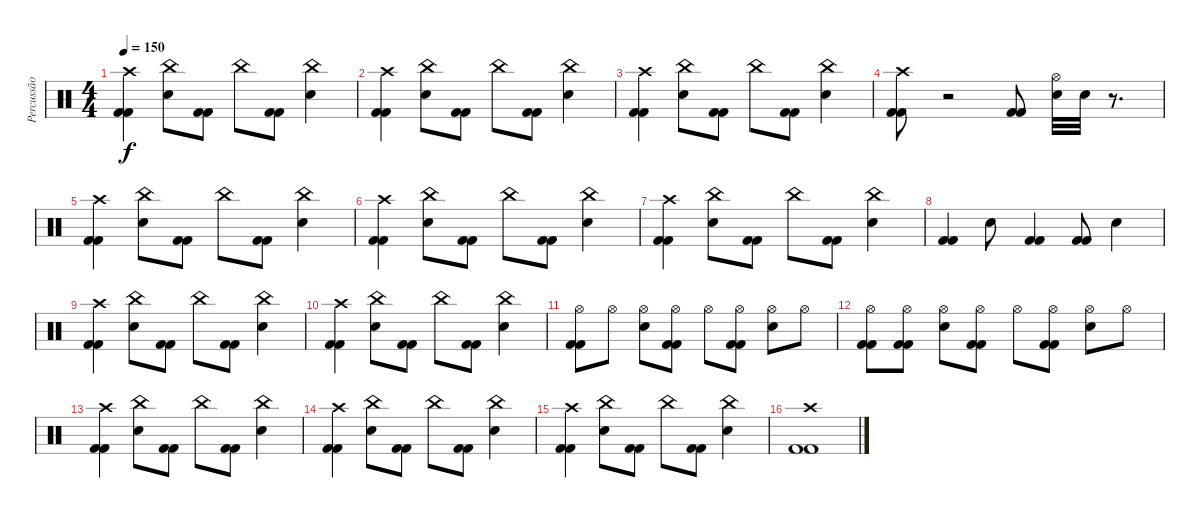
\track ("Percussão" "Percussão") {instrument percussion}
\staff {score}
\articulation defaults
\ts (4 4)
\tempo 150
\clef neutral
\ks c
("Crash high (hit)" "Kick (hit) 2" "Kick (hit) 2").4{dy f} ("China (hit)" "Electric Snare (hit)").8 ("Kick (hit) 2" "Kick (hit) 2").8 "China (hit)".8 ("Kick (hit) 2" "Kick (hit) 2").8 ("China (hit)" "Electric Snare (hit)").4 |
("Crash high (hit)" "Kick (hit) 2" "Kick (hit) 2").4 ("China (hit)" "Electric Snare (hit)").8 ("Kick (hit) 2" "Kick (hit) 2").8 "China (hit)".8 ("Kick (hit) 2" "Kick (hit) 2").8 ("China (hit)" "Electric Snare (hit)").4 |
("Crash high (hit)" "Kick (hit) 2" "Kick (hit) 2").4 ("China (hit)" "Electric Snare (hit)").8 ("Kick (hit) 2" "Kick (hit) 2").8 "China (hit)".8 ("Kick (hit) 2" "Kick (hit) 2").8 ("China (hit)" "Electric Snare (hit)").4 |
("Crash high (hit)" "Kick (hit) 2" "Kick (hit) 2").8 r.2 ("Kick (hit) 2" "Kick (hit) 2").8 ("Hi-Hat (open)" "Electric Snare (hit)").32 "Electric Snare (hit)".32 r.8{d} |
("Crash high (hit)" "Kick (hit) 2" "Kick (hit) 2").4 ("China (hit)" "Electric Snare (hit)").8 ("Kick (hit) 2" "Kick (hit) 2").8 "China (hit)".8 ("Kick (hit) 2" "Kick (hit) 2").8 ("China (hit)" "Electric Snare (hit)").4 |
("Crash high (hit)" "Kick (hit) 2" "Kick (hit) 2").4 ("China (hit)" "Electric Snare (hit)").8 ("Kick (hit) 2" "Kick (hit) 2").8 "China (hit)".8 ("Kick (hit) 2" "Kick (hit) 2").8 ("China (hit)" "Electric Snare (hit)").4 |
("Crash high (hit)" "Kick (hit) 2" "Kick (hit) 2").4 ("China (hit)" "Electric Snare (hit)").8 ("Kick (hit) 2" "Kick (hit) 2").8 "China (hit)".8 ("Kick (hit) 2" "Kick (hit) 2").8 ("China (hit)" "Electric Snare (hit)").4 |
("Kick (hit) 2" "Kick (hit) 2").4 "Electric Snare (hit)".8 ("Kick (hit) 2" "Kick (hit) 2").4 ("Kick (hit) 2" "Kick (hit) 2").8 "Electric Snare (hit)".4 |
("Crash high (hit)" "Kick (hit) 2" "Kick (hit) 2").4 ("China (hit)" "Electric Snare (hit)").8 ("Kick (hit) 2" "Kick (hit) 2").8 "China (hit)".8 ("Kick (hit) 2" "Kick (hit) 2").8 ("China (hit)" "Electric Snare (hit)").4 |
("Crash high (hit)" "Kick (hit) 2" "Kick (hit) 2").4 ("China (hit)" "Electric Snare (hit)").8 ("Kick (hit) 2" "Kick (hit) 2").8 "China (hit)".8 ("Kick (hit) 2" "Kick (hit) 2").8 ("China (hit)" "Electric Snare (hit)").4 |
("Hi-Hat (open)" "Kick (hit) 2" "Kick (hit) 2").8 "Hi-Hat (open)".8 ("Hi-Hat (open)" "Electric Snare (hit)").8 ("Hi-Hat (open)" "Kick (hit) 2" "Kick (hit) 2").8 "Hi-Hat (open)".8 ("Hi-Hat (open)" "Kick (hit) 2" "Kick (hit) 2").8 ("Hi-Hat (open)" "Electric Snare (hit)").8 "Hi-Hat (open)".8 |
("Hi-Hat (open)" "Kick (hit) 2" "Kick (hit) 2").8 ("Hi-Hat (open)" "Kick (hit) 2" "Kick (hit) 2").8 ("Hi-Hat (open)" "Electric Snare (hit)").8 ("Hi-Hat (open)" "Kick (hit) 2" "Kick (hit) 2").8 "Hi-Hat (open)".8 ("Hi-Hat (open)" "Kick (hit) 2" "Kick (hit) 2").8 ("Hi-Hat (open)" "Electric Snare (hit)").8 "Hi-Hat (open)".8 |
("Crash high (hit)" "Kick (hit) 2" "Kick (hit) 2").4 ("China (hit)" "Electric Snare (hit)").8 ("Kick (hit) 2" "Kick (hit) 2").8 "China (hit)".8 ("Kick (hit) 2" "Kick (hit) 2").8 ("China (hit)" "Electric Snare (hit)").4 |
("Crash high (hit)" "Kick (hit) 2" "Kick (hit) 2").4 ("China (hit)" "Electric Snare (hit)").8 ("Kick (hit) 2" "Kick (hit) 2").8 "China (hit)".8 ("Kick (hit) 2" "Kick (hit) 2").8 ("China (hit)" "Electric Snare (hit)").4 |
("Crash high (hit)" "Kick (hit) 2" "Kick (hit) 2").4 ("China (hit)" "Electric Snare (hit)").8 ("Kick (hit) 2" "Kick (hit) 2").8 "China (hit)".8 ("Kick (hit) 2" "Kick (hit) 2").8 ("China (hit)" "Electric Snare (hit)").4 |
("Crash high (hit)" "Kick (hit) 2" "Kick (hit) 2").1
